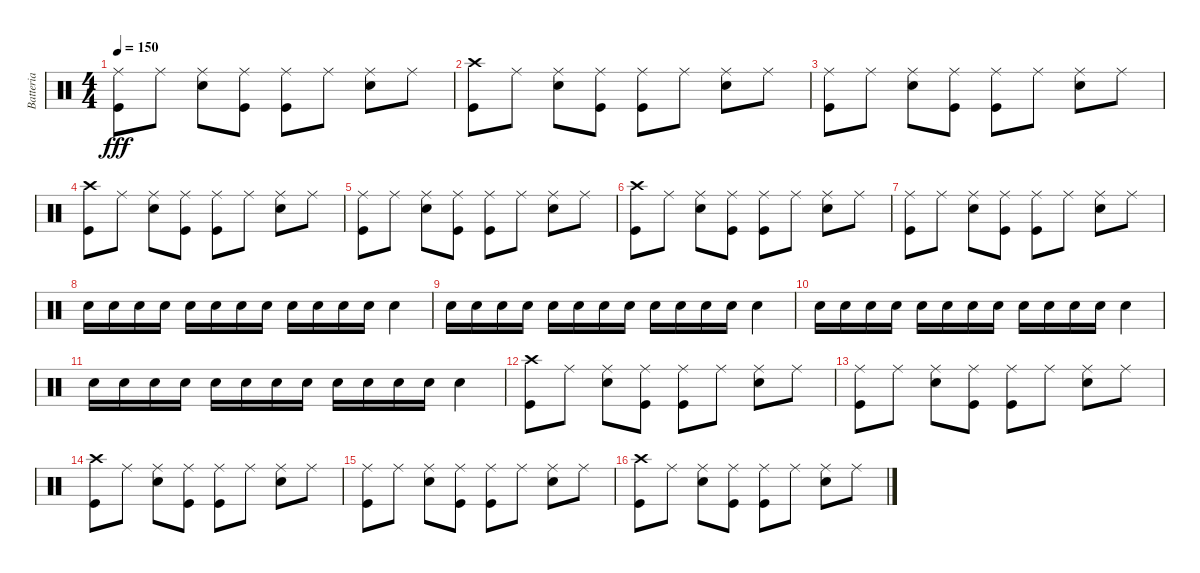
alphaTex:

\track ("Batteria" "Batteria") {instrument percussion}
\staff {score}
\articulation defaults
\ts (4 4)
\tempo 150
\clef neutral
\ks c
("Kick (hit)" "Ride (middle)").8{dy fff} "Ride (middle)".8 ("Ride (middle)" "Electric Snare (hit)").8 ("Kick (hit)" "Ride (middle)").8 ("Kick (hit)" "Ride (middle)").8 "Ride (middle)".8 ("Electric Snare (hit)" "Ride (middle)").8 "Ride (middle)".8 |
("Kick (hit)" "Crash high (hit)").8 "Ride (middle)".8 ("Ride (middle)" "Electric Snare (hit)").8 ("Kick (hit)" "Ride (middle)").8 ("Kick (hit)" "Ride (middle)").8 "Ride (middle)".8 ("Electric Snare (hit)" "Ride (middle)").8 "Ride (middle)".8 |
("Kick (hit)" "Ride (middle)").8 "Ride (middle)".8 ("Ride (middle)" "Electric Snare (hit)").8 ("Kick (hit)" "Ride (middle)").8 ("Kick (hit)" "Ride (middle)").8 "Ride (middle)".8 ("Electric Snare (hit)" "Ride (middle)").8 "Ride (middle)".8 |
("Kick (hit)" "Crash high (hit)").8 "Ride (middle)".8 ("Ride (middle)" "Electric Snare (hit)").8 ("Kick (hit)" "Ride (middle)").8 ("Kick (hit)" "Ride (middle)").8 "Ride (middle)".8 ("Electric Snare (hit)" "Ride (middle)").8 "Ride (middle)".8 |
("Kick (hit)" "Ride (middle)").8 "Ride (middle)".8 ("Ride (middle)" "Electric Snare (hit)").8 ("Kick (hit)" "Ride (middle)").8 ("Kick (hit)" "Ride (middle)").8 "Ride (middle)".8 ("Electric Snare (hit)" "Ride (middle)").8 "Ride (middle)".8 |
("Kick (hit)" "Crash high (hit)").8 "Ride (middle)".8 ("Ride (middle)" "Electric Snare (hit)").8 ("Kick (hit)" "Ride (middle)").8 ("Kick (hit)" "Ride (middle)").8 "Ride (middle)".8 ("Electric Snare (hit)" "Ride (middle)").8 "Ride (middle)".8 |
("Kick (hit)" "Ride (middle)").8 "Ride (middle)".8 ("Ride (middle)" "Electric Snare (hit)").8 ("Kick (hit)" "Ride (middle)").8 ("Kick (hit)" "Ride (middle)").8 "Ride (middle)".8 ("Electric Snare (hit)" "Ride (middle)").8 "Ride (middle)".8 |
"Electric Snare (hit)".16 "Electric Snare (hit)".16 "Electric Snare (hit)".16 "Electric Snare (hit)".16 "Electric Snare (hit)".16 "Electric Snare (hit)".16 "Electric Snare (hit)".16 "Electric Snare (hit)".16 "Electric Snare (hit)".16 "Electric Snare (hit)".16 "Electric Snare (hit)".16 "Electric Snare (hit)".16 "Electric Snare (hit)".4 |
"Electric Snare (hit)".16 "Electric Snare (hit)".16 "Electric Snare (hit)".16 "Electric Snare (hit)".16 "Electric Snare (hit)".16 "Electric Snare (hit)".16 "Electric Snare (hit)".16 "Electric Snare (hit)".16 "Electric Snare (hit)".16 "Electric Snare (hit)".16 "Electric Snare (hit)".16 "Electric Snare (hit)".16 "Electric Snare (hit)".4 |
"Electric Snare (hit)".16 "Electric Snare (hit)".16 "Electric Snare (hit)".16 "Electric Snare (hit)".16 "Electric Snare (hit)".16 "Electric Snare (hit)".16 "Electric Snare (hit)".16 "Electric Snare (hit)".16 "Electric Snare (hit)".16 "Electric Snare (hit)".16 "Electric Snare (hit)".16 "Electric Snare (hit)".16 "Electric Snare (hit)".4 |
"Electric Snare (hit)".16 "Electric Snare (hit)".16 "Electric Snare (hit)".16 "Electric Snare (hit)".16 "Electric Snare (hit)".16 "Electric Snare (hit)".16 "Electric Snare (hit)".16 "Electric Snare (hit)".16 "Electric Snare (hit)".16 "Electric Snare (hit)".16 "Electric Snare (hit)".16 "Electric Snare (hit)".16 "Electric Snare (hit)".4 |
("Kick (hit)" "Crash high (hit)").8 "Ride (middle)".8 ("Ride (middle)" "Electric Snare (hit)").8 ("Kick (hit)" "Ride (middle)").8 ("Kick (hit)" "Ride (middle)").8 "Ride (middle)".8 ("Electric Snare (hit)" "Ride (middle)").8 "Ride (middle)".8 |
("Kick (hit)" "Ride (middle)").8 "Ride (middle)".8 ("Ride (middle)" "Electric Snare (hit)").8 ("Kick (hit)" "Ride (middle)").8 ("Kick (hit)" "Ride (middle)").8 "Ride (middle)".8 ("Electric Snare (hit)" "Ride (middle)").8 "Ride (middle)".8 |
("Kick (hit)" "Crash high (hit)").8 "Ride (middle)".8 ("Ride (middle)" "Electric Snare (hit)").8 ("Kick (hit)" "Ride (middle)").8 ("Kick (hit)" "Ride (middle)").8 "Ride (middle)".8 ("Electric Snare (hit)" "Ride (middle)").8 "Ride (middle)".8 |
("Kick (hit)" "Ride (middle)").8 "Ride (middle)".8 ("Ride (middle)" "Electric Snare (hit)").8 ("Kick (hit)" "Ride (middle)").8 ("Kick (hit)" "Ride (middle)").8 "Ride (middle)".8 ("Electric Snare (hit)" "Ride (middle)").8 "Ride (middle)".8 |
("Kick (hit)" "Crash high (hit)").8 "Ride (middle)".8 ("Ride (middle)" "Electric Snare (hit)").8 ("Kick (hit)" "Ride (middle)").8 ("Kick (hit)" "Ride (middle)").8 "Ride (middle)".8 ("Electric Snare (hit)" "Ride (middle)").8 "Ride (middle)".8
